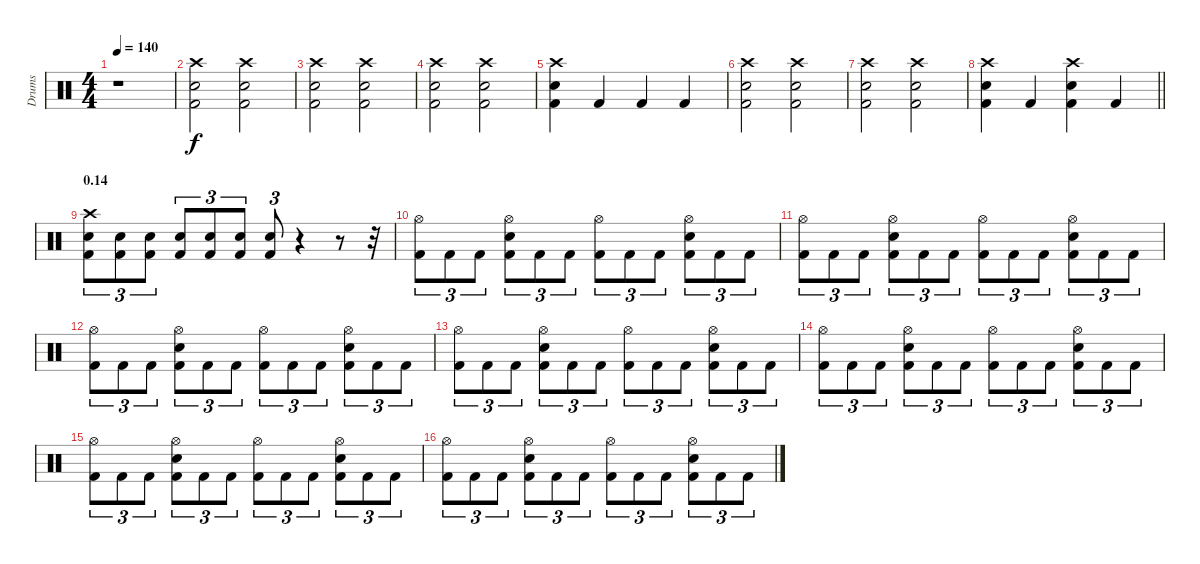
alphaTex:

\track ("Drums" "Drums") {instrument percussion}
\staff {score}
\articulation defaults
\ts (4 4)
\tempo 140
\clef neutral
\ks c
r.1{dy f} |
("Crash high (hit)" "Electric Snare (hit)" "Kick (hit) 2").2 ("Crash high (hit)" "Electric Snare (hit)" "Kick (hit) 2").2 |
("Crash high (hit)" "Electric Snare (hit)" "Kick (hit) 2").2 ("Crash high (hit)" "Electric Snare (hit)" "Kick (hit) 2").2 |
("Crash high (hit)" "Electric Snare (hit)" "Kick (hit) 2").2 ("Crash high (hit)" "Electric Snare (hit)" "Kick (hit) 2").2 |
("Crash high (hit)" "Electric Snare (hit)" "Kick (hit) 2").4 "Kick (hit) 2".4 "Kick (hit) 2".4 "Kick (hit) 2".4 |
("Crash high (hit)" "Electric Snare (hit)" "Kick (hit) 2").2 ("Crash high (hit)" "Electric Snare (hit)" "Kick (hit) 2").2 |
("Crash high (hit)" "Electric Snare (hit)" "Kick (hit) 2").2 ("Crash high (hit)" "Electric Snare (hit)" "Kick (hit) 2").2 |
\barLineRight lightlight
("Crash high (hit)" "Electric Snare (hit)" "Kick (hit) 2").4 "Kick (hit) 2".4 ("Crash high (hit)" "Electric Snare (hit)" "Kick (hit) 2").4 "Kick (hit) 2".4 |
\section ("" "0.14")
("Crash high (hit)" "Electric Snare (hit)" "Kick (hit) 2").8{tu (3 2)} ("Electric Snare (hit)" "Kick (hit) 2").8{tu (3 2)} ("Electric Snare (hit)" "Kick (hit) 2").8{tu (3 2)} ("Electric Snare (hit)" "Kick (hit) 2").8{tu (3 2)} ("Electric Snare (hit)" "Kick (hit) 2").8{tu (3 2)} ("Electric Snare (hit)" "Kick (hit) 2").8{tu (3 2)} ("Electric Snare (hit)" "Kick (hit) 2").8{tu (3 2)} r.4 r.8 r.32 |
("Hi-Hat (open)" "Kick (hit) 2").8{tu (3 2)} "Kick (hit) 2".8{tu (3 2)} "Kick (hit) 2".8{tu (3 2)} ("Hi-Hat (open)" "Electric Snare (hit)" "Kick (hit) 2").8{tu (3 2)} "Kick (hit) 2".8{tu (3 2)} "Kick (hit) 2".8{tu (3 2)} ("Hi-Hat (open)" "Kick (hit) 2").8{tu (3 2)} "Kick (hit) 2".8{tu (3 2)} "Kick (hit) 2".8{tu (3 2)} ("Hi-Hat (open)" "Electric Snare (hit)" "Kick (hit) 2").8{tu (3 2)} "Kick (hit) 2".8{tu (3 2)} "Kick (hit) 2".8{tu (3 2)} |
("Hi-Hat (open)" "Kick (hit) 2").8{tu (3 2)} "Kick (hit) 2".8{tu (3 2)} "Kick (hit) 2".8{tu (3 2)} ("Hi-Hat (open)" "Electric Snare (hit)" "Kick (hit) 2").8{tu (3 2)} "Kick (hit) 2".8{tu (3 2)} "Kick (hit) 2".8{tu (3 2)} ("Hi-Hat (open)" "Kick (hit) 2").8{tu (3 2)} "Kick (hit) 2".8{tu (3 2)} "Kick (hit) 2".8{tu (3 2)} ("Hi-Hat (open)" "Electric Snare (hit)" "Kick (hit) 2").8{tu (3 2)} "Kick (hit) 2".8{tu (3 2)} "Kick (hit) 2".8{tu (3 2)} |
("Hi-Hat (open)" "Kick (hit) 2").8{tu (3 2)} "Kick (hit) 2".8{tu (3 2)} "Kick (hit) 2".8{tu (3 2)} ("Hi-Hat (open)" "Electric Snare (hit)" "Kick (hit) 2").8{tu (3 2)} "Kick (hit) 2".8{tu (3 2)} "Kick (hit) 2".8{tu (3 2)} ("Hi-Hat (open)" "Kick (hit) 2").8{tu (3 2)} "Kick (hit) 2".8{tu (3 2)} "Kick (hit) 2".8{tu (3 2)} ("Hi-Hat (open)" "Electric Snare (hit)" "Kick (hit) 2").8{tu (3 2)} "Kick (hit) 2".8{tu (3 2)} "Kick (hit) 2".8{tu (3 2)} |
("Hi-Hat (open)" "Kick (hit) 2").8{tu (3 2)} "Kick (hit) 2".8{tu (3 2)} "Kick (hit) 2".8{tu (3 2)} ("Hi-Hat (open)" "Electric Snare (hit)" "Kick (hit) 2").8{tu (3 2)} "Kick (hit) 2".8{tu (3 2)} "Kick (hit) 2".8{tu (3 2)} ("Hi-Hat (open)" "Kick (hit) 2").8{tu (3 2)} "Kick (hit) 2".8{tu (3 2)} "Kick (hit) 2".8{tu (3 2)} ("Hi-Hat (open)" "Electric Snare (hit)" "Kick (hit) 2").8{tu (3 2)} "Kick (hit) 2".8{tu (3 2)} "Kick (hit) 2".8{tu (3 2)} |
("Hi-Hat (open)" "Kick (hit) 2").8{tu (3 2)} "Kick (hit) 2".8{tu (3 2)} "Kick (hit) 2".8{tu (3 2)} ("Hi-Hat (open)" "Electric Snare (hit)" "Kick (hit) 2").8{tu (3 2)} "Kick (hit) 2".8{tu (3 2)} "Kick (hit) 2".8{tu (3 2)} ("Hi-Hat (open)" "Kick (hit) 2").8{tu (3 2)} "Kick (hit) 2".8{tu (3 2)} "Kick (hit) 2".8{tu (3 2)} ("Hi-Hat (open)" "Electric Snare (hit)" "Kick (hit) 2").8{tu (3 2)} "Kick (hit) 2".8{tu (3 2)} "Kick (hit) 2".8{tu (3 2)} |
("Hi-Hat (open)" "Kick (hit) 2").8{tu (3 2)} "Kick (hit) 2".8{tu (3 2)} "Kick (hit) 2".8{tu (3 2)} ("Hi-Hat (open)" "Electric Snare (hit)" "Kick (hit) 2").8{tu (3 2)} "Kick (hit) 2".8{tu (3 2)} "Kick (hit) 2".8{tu (3 2)} ("Hi-Hat (open)" "Kick (hit) 2").8{tu (3 2)} "Kick (hit) 2".8{tu (3 2)} "Kick (hit) 2".8{tu (3 2)} ("Hi-Hat (open)" "Electric Snare (hit)" "Kick (hit) 2").8{tu (3 2)} "Kick (hit) 2".8{tu (3 2)} "Kick (hit) 2".8{tu (3 2)} |
("Hi-Hat (open)" "Kick (hit) 2").8{tu (3 2)} "Kick (hit) 2".8{tu (3 2)} "Kick (hit) 2".8{tu (3 2)} ("Hi-Hat (open)" "Electric Snare (hit)" "Kick (hit) 2").8{tu (3 2)} "Kick (hit) 2".8{tu (3 2)} "Kick (hit) 2".8{tu (3 2)} ("Hi-Hat (open)" "Kick (hit) 2").8{tu (3 2)} "Kick (hit) 2".8{tu (3 2)} "Kick (hit) 2".8{tu (3 2)} ("Hi-Hat (open)" "Electric Snare (hit)" "Kick (hit) 2").8{tu (3 2)} "Kick (hit) 2".8{tu (3 2)} "Kick (hit) 2".8{tu (3 2)}
